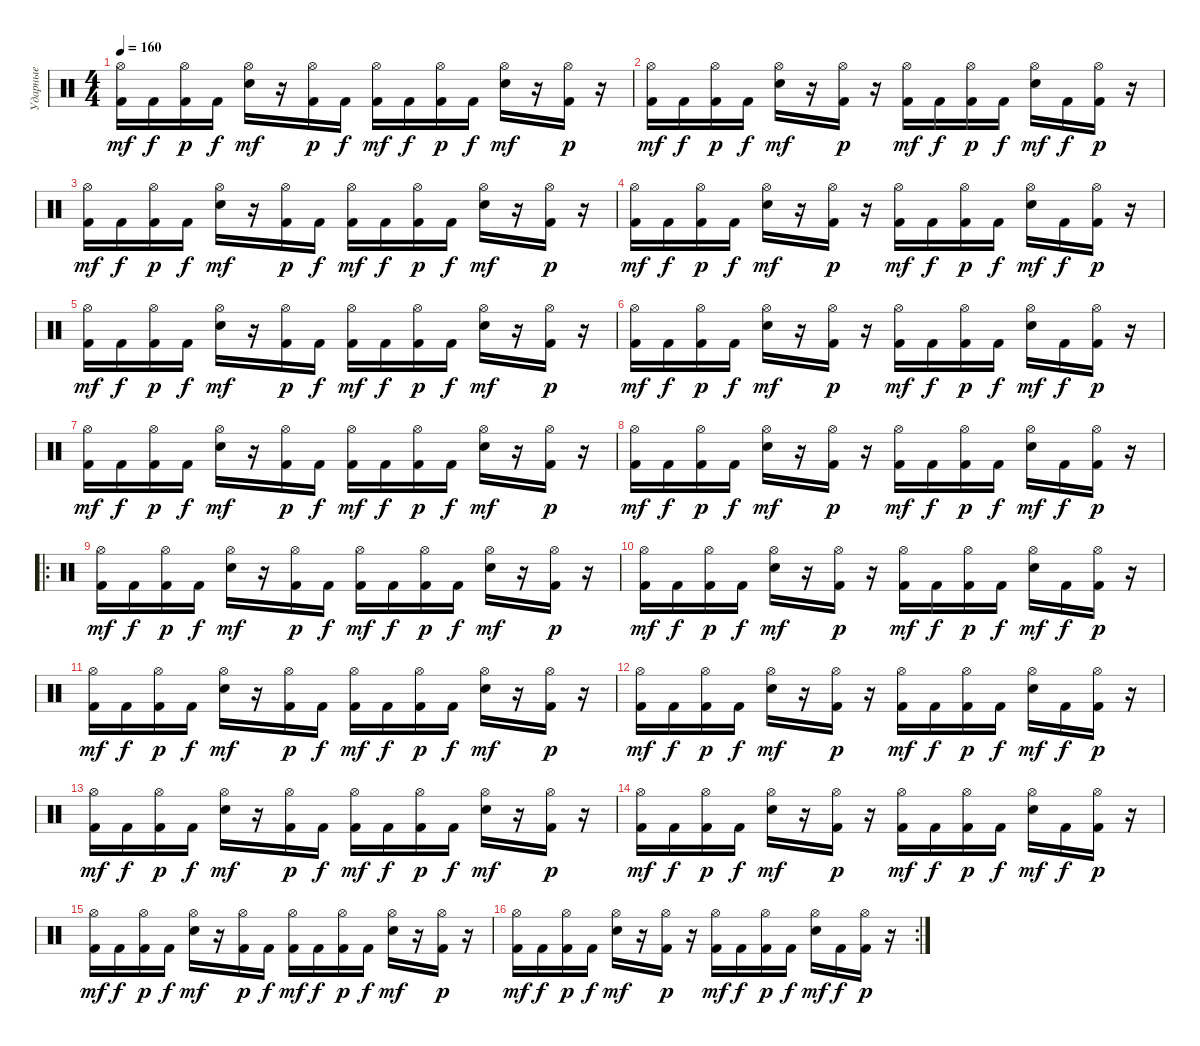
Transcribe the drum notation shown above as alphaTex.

\track ("Ударные" "Ударные") {instrument percussion}
\staff {score}
\articulation defaults
\ts (4 4)
\tempo 160
\clef neutral
\ks c
("Hi-Hat (open)" "Kick (hit) 2").16{dy mf} "Kick (hit) 2".16{dy f} ("Hi-Hat (open)" "Kick (hit) 2").16{dy p} "Kick (hit) 2".16{dy f} ("Hi-Hat (open)" "Electric Snare (hit)").16{dy mf} r.16 ("Hi-Hat (open)" "Kick (hit) 2").16{dy p} "Kick (hit) 2".16{dy f} ("Hi-Hat (open)" "Kick (hit) 2").16{dy mf} "Kick (hit) 2".16{dy f} ("Hi-Hat (open)" "Kick (hit) 2").16{dy p} "Kick (hit) 2".16{dy f} ("Hi-Hat (open)" "Electric Snare (hit)").16{dy mf} r.16 ("Hi-Hat (open)" "Kick (hit) 2").16{dy p} r.16 |
("Hi-Hat (open)" "Kick (hit) 2").16{dy mf} "Kick (hit) 2".16{dy f} ("Hi-Hat (open)" "Kick (hit) 2").16{dy p} "Kick (hit) 2".16{dy f} ("Hi-Hat (open)" "Electric Snare (hit)").16{dy mf} r.16 ("Hi-Hat (open)" "Kick (hit) 2").16{dy p} r.16 ("Hi-Hat (open)" "Kick (hit) 2").16{dy mf} "Kick (hit) 2".16{dy f} ("Hi-Hat (open)" "Kick (hit) 2").16{dy p} "Kick (hit) 2".16{dy f} ("Hi-Hat (open)" "Electric Snare (hit)").16{dy mf} "Kick (hit) 2".16{dy f} ("Hi-Hat (open)" "Kick (hit) 2").16{dy p} r.16 |
("Hi-Hat (open)" "Kick (hit) 2").16{dy mf} "Kick (hit) 2".16{dy f} ("Hi-Hat (open)" "Kick (hit) 2").16{dy p} "Kick (hit) 2".16{dy f} ("Hi-Hat (open)" "Electric Snare (hit)").16{dy mf} r.16 ("Hi-Hat (open)" "Kick (hit) 2").16{dy p} "Kick (hit) 2".16{dy f} ("Hi-Hat (open)" "Kick (hit) 2").16{dy mf} "Kick (hit) 2".16{dy f} ("Hi-Hat (open)" "Kick (hit) 2").16{dy p} "Kick (hit) 2".16{dy f} ("Hi-Hat (open)" "Electric Snare (hit)").16{dy mf} r.16 ("Hi-Hat (open)" "Kick (hit) 2").16{dy p} r.16 |
("Hi-Hat (open)" "Kick (hit) 2").16{dy mf} "Kick (hit) 2".16{dy f} ("Hi-Hat (open)" "Kick (hit) 2").16{dy p} "Kick (hit) 2".16{dy f} ("Hi-Hat (open)" "Electric Snare (hit)").16{dy mf} r.16 ("Hi-Hat (open)" "Kick (hit) 2").16{dy p} r.16 ("Hi-Hat (open)" "Kick (hit) 2").16{dy mf} "Kick (hit) 2".16{dy f} ("Hi-Hat (open)" "Kick (hit) 2").16{dy p} "Kick (hit) 2".16{dy f} ("Hi-Hat (open)" "Electric Snare (hit)").16{dy mf} "Kick (hit) 2".16{dy f} ("Hi-Hat (open)" "Kick (hit) 2").16{dy p} r.16 |
("Hi-Hat (open)" "Kick (hit) 2").16{dy mf} "Kick (hit) 2".16{dy f} ("Hi-Hat (open)" "Kick (hit) 2").16{dy p} "Kick (hit) 2".16{dy f} ("Hi-Hat (open)" "Electric Snare (hit)").16{dy mf} r.16 ("Hi-Hat (open)" "Kick (hit) 2").16{dy p} "Kick (hit) 2".16{dy f} ("Hi-Hat (open)" "Kick (hit) 2").16{dy mf} "Kick (hit) 2".16{dy f} ("Hi-Hat (open)" "Kick (hit) 2").16{dy p} "Kick (hit) 2".16{dy f} ("Hi-Hat (open)" "Electric Snare (hit)").16{dy mf} r.16 ("Hi-Hat (open)" "Kick (hit) 2").16{dy p} r.16 |
("Hi-Hat (open)" "Kick (hit) 2").16{dy mf} "Kick (hit) 2".16{dy f} ("Hi-Hat (open)" "Kick (hit) 2").16{dy p} "Kick (hit) 2".16{dy f} ("Hi-Hat (open)" "Electric Snare (hit)").16{dy mf} r.16 ("Hi-Hat (open)" "Kick (hit) 2").16{dy p} r.16 ("Hi-Hat (open)" "Kick (hit) 2").16{dy mf} "Kick (hit) 2".16{dy f} ("Hi-Hat (open)" "Kick (hit) 2").16{dy p} "Kick (hit) 2".16{dy f} ("Hi-Hat (open)" "Electric Snare (hit)").16{dy mf} "Kick (hit) 2".16{dy f} ("Hi-Hat (open)" "Kick (hit) 2").16{dy p} r.16 |
("Hi-Hat (open)" "Kick (hit) 2").16{dy mf} "Kick (hit) 2".16{dy f} ("Hi-Hat (open)" "Kick (hit) 2").16{dy p} "Kick (hit) 2".16{dy f} ("Hi-Hat (open)" "Electric Snare (hit)").16{dy mf} r.16 ("Hi-Hat (open)" "Kick (hit) 2").16{dy p} "Kick (hit) 2".16{dy f} ("Hi-Hat (open)" "Kick (hit) 2").16{dy mf} "Kick (hit) 2".16{dy f} ("Hi-Hat (open)" "Kick (hit) 2").16{dy p} "Kick (hit) 2".16{dy f} ("Hi-Hat (open)" "Electric Snare (hit)").16{dy mf} r.16 ("Hi-Hat (open)" "Kick (hit) 2").16{dy p} r.16 |
("Hi-Hat (open)" "Kick (hit) 2").16{dy mf} "Kick (hit) 2".16{dy f} ("Hi-Hat (open)" "Kick (hit) 2").16{dy p} "Kick (hit) 2".16{dy f} ("Hi-Hat (open)" "Electric Snare (hit)").16{dy mf} r.16 ("Hi-Hat (open)" "Kick (hit) 2").16{dy p} r.16 ("Hi-Hat (open)" "Kick (hit) 2").16{dy mf} "Kick (hit) 2".16{dy f} ("Hi-Hat (open)" "Kick (hit) 2").16{dy p} "Kick (hit) 2".16{dy f} ("Hi-Hat (open)" "Electric Snare (hit)").16{dy mf} "Kick (hit) 2".16{dy f} ("Hi-Hat (open)" "Kick (hit) 2").16{dy p} r.16 |
\ro
("Hi-Hat (open)" "Kick (hit) 2").16{dy mf} "Kick (hit) 2".16{dy f} ("Hi-Hat (open)" "Kick (hit) 2").16{dy p} "Kick (hit) 2".16{dy f} ("Hi-Hat (open)" "Electric Snare (hit)").16{dy mf} r.16 ("Hi-Hat (open)" "Kick (hit) 2").16{dy p} "Kick (hit) 2".16{dy f} ("Hi-Hat (open)" "Kick (hit) 2").16{dy mf} "Kick (hit) 2".16{dy f} ("Hi-Hat (open)" "Kick (hit) 2").16{dy p} "Kick (hit) 2".16{dy f} ("Hi-Hat (open)" "Electric Snare (hit)").16{dy mf} r.16 ("Hi-Hat (open)" "Kick (hit) 2").16{dy p} r.16 |
("Hi-Hat (open)" "Kick (hit) 2").16{dy mf} "Kick (hit) 2".16{dy f} ("Hi-Hat (open)" "Kick (hit) 2").16{dy p} "Kick (hit) 2".16{dy f} ("Hi-Hat (open)" "Electric Snare (hit)").16{dy mf} r.16 ("Hi-Hat (open)" "Kick (hit) 2").16{dy p} r.16 ("Hi-Hat (open)" "Kick (hit) 2").16{dy mf} "Kick (hit) 2".16{dy f} ("Hi-Hat (open)" "Kick (hit) 2").16{dy p} "Kick (hit) 2".16{dy f} ("Hi-Hat (open)" "Electric Snare (hit)").16{dy mf} "Kick (hit) 2".16{dy f} ("Hi-Hat (open)" "Kick (hit) 2").16{dy p} r.16 |
("Hi-Hat (open)" "Kick (hit) 2").16{dy mf} "Kick (hit) 2".16{dy f} ("Hi-Hat (open)" "Kick (hit) 2").16{dy p} "Kick (hit) 2".16{dy f} ("Hi-Hat (open)" "Electric Snare (hit)").16{dy mf} r.16 ("Hi-Hat (open)" "Kick (hit) 2").16{dy p} "Kick (hit) 2".16{dy f} ("Hi-Hat (open)" "Kick (hit) 2").16{dy mf} "Kick (hit) 2".16{dy f} ("Hi-Hat (open)" "Kick (hit) 2").16{dy p} "Kick (hit) 2".16{dy f} ("Hi-Hat (open)" "Electric Snare (hit)").16{dy mf} r.16 ("Hi-Hat (open)" "Kick (hit) 2").16{dy p} r.16 |
("Hi-Hat (open)" "Kick (hit) 2").16{dy mf} "Kick (hit) 2".16{dy f} ("Hi-Hat (open)" "Kick (hit) 2").16{dy p} "Kick (hit) 2".16{dy f} ("Hi-Hat (open)" "Electric Snare (hit)").16{dy mf} r.16 ("Hi-Hat (open)" "Kick (hit) 2").16{dy p} r.16 ("Hi-Hat (open)" "Kick (hit) 2").16{dy mf} "Kick (hit) 2".16{dy f} ("Hi-Hat (open)" "Kick (hit) 2").16{dy p} "Kick (hit) 2".16{dy f} ("Hi-Hat (open)" "Electric Snare (hit)").16{dy mf} "Kick (hit) 2".16{dy f} ("Hi-Hat (open)" "Kick (hit) 2").16{dy p} r.16 |
("Hi-Hat (open)" "Kick (hit) 2").16{dy mf} "Kick (hit) 2".16{dy f} ("Hi-Hat (open)" "Kick (hit) 2").16{dy p} "Kick (hit) 2".16{dy f} ("Hi-Hat (open)" "Electric Snare (hit)").16{dy mf} r.16 ("Hi-Hat (open)" "Kick (hit) 2").16{dy p} "Kick (hit) 2".16{dy f} ("Hi-Hat (open)" "Kick (hit) 2").16{dy mf} "Kick (hit) 2".16{dy f} ("Hi-Hat (open)" "Kick (hit) 2").16{dy p} "Kick (hit) 2".16{dy f} ("Hi-Hat (open)" "Electric Snare (hit)").16{dy mf} r.16 ("Hi-Hat (open)" "Kick (hit) 2").16{dy p} r.16 |
("Hi-Hat (open)" "Kick (hit) 2").16{dy mf} "Kick (hit) 2".16{dy f} ("Hi-Hat (open)" "Kick (hit) 2").16{dy p} "Kick (hit) 2".16{dy f} ("Hi-Hat (open)" "Electric Snare (hit)").16{dy mf} r.16 ("Hi-Hat (open)" "Kick (hit) 2").16{dy p} r.16 ("Hi-Hat (open)" "Kick (hit) 2").16{dy mf} "Kick (hit) 2".16{dy f} ("Hi-Hat (open)" "Kick (hit) 2").16{dy p} "Kick (hit) 2".16{dy f} ("Hi-Hat (open)" "Electric Snare (hit)").16{dy mf} "Kick (hit) 2".16{dy f} ("Hi-Hat (open)" "Kick (hit) 2").16{dy p} r.16 |
("Hi-Hat (open)" "Kick (hit) 2").16{dy mf} "Kick (hit) 2".16{dy f} ("Hi-Hat (open)" "Kick (hit) 2").16{dy p} "Kick (hit) 2".16{dy f} ("Hi-Hat (open)" "Electric Snare (hit)").16{dy mf} r.16 ("Hi-Hat (open)" "Kick (hit) 2").16{dy p} "Kick (hit) 2".16{dy f} ("Hi-Hat (open)" "Kick (hit) 2").16{dy mf} "Kick (hit) 2".16{dy f} ("Hi-Hat (open)" "Kick (hit) 2").16{dy p} "Kick (hit) 2".16{dy f} ("Hi-Hat (open)" "Electric Snare (hit)").16{dy mf} r.16 ("Hi-Hat (open)" "Kick (hit) 2").16{dy p} r.16 |
\rc 2
("Hi-Hat (open)" "Kick (hit) 2").16{dy mf} "Kick (hit) 2".16{dy f} ("Hi-Hat (open)" "Kick (hit) 2").16{dy p} "Kick (hit) 2".16{dy f} ("Hi-Hat (open)" "Electric Snare (hit)").16{dy mf} r.16 ("Hi-Hat (open)" "Kick (hit) 2").16{dy p} r.16 ("Hi-Hat (open)" "Kick (hit) 2").16{dy mf} "Kick (hit) 2".16{dy f} ("Hi-Hat (open)" "Kick (hit) 2").16{dy p} "Kick (hit) 2".16{dy f} ("Hi-Hat (open)" "Electric Snare (hit)").16{dy mf} "Kick (hit) 2".16{dy f} ("Hi-Hat (open)" "Kick (hit) 2").16{dy p} r.16
